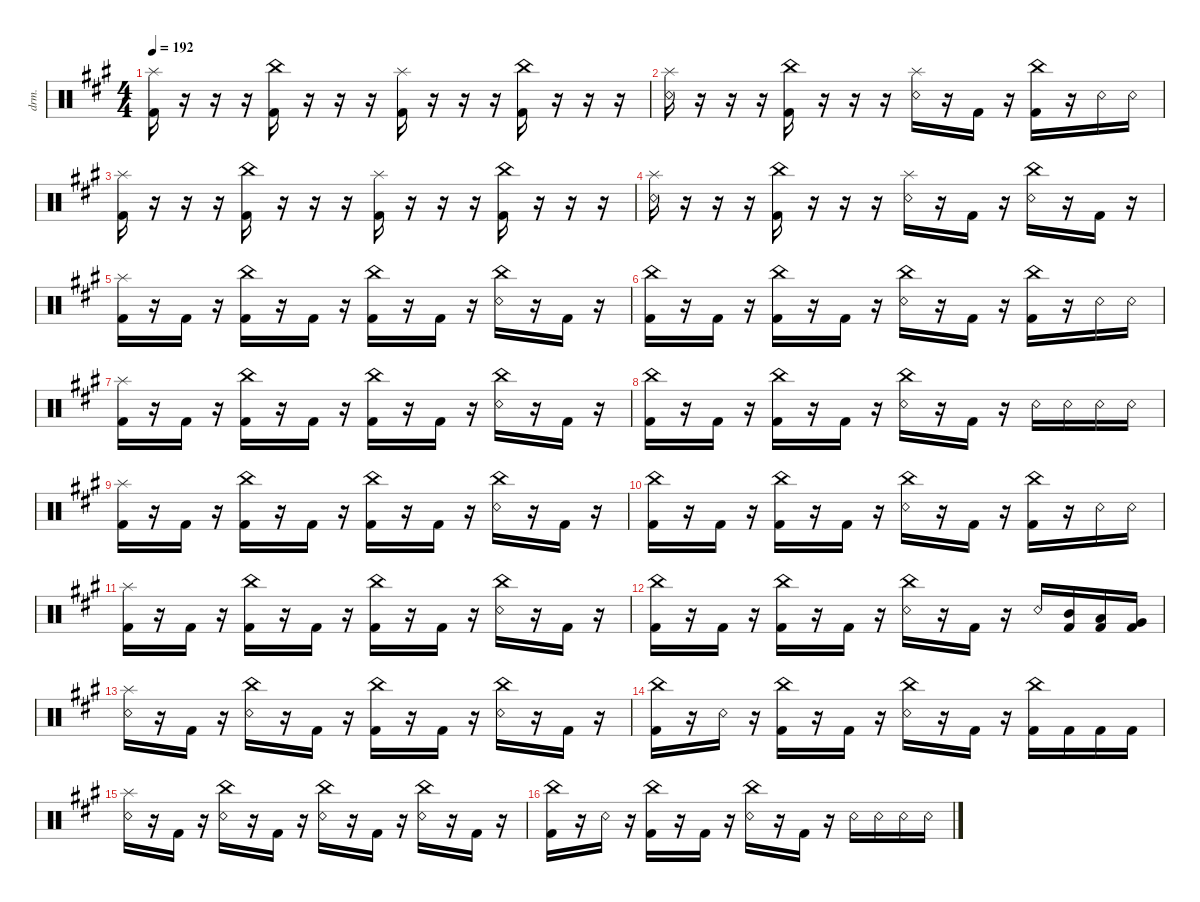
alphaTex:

\defaultSystemsLayout 4
\hideDynamics
\bracketExtendMode nobrackets
\otherSystemsTrackNameOrientation horizontal
\track ("Drumkit" "drm.") {instrument percussion}
\staff {score}
\articulation defaults
\ts (4 4)
\tempo 192
\clef neutral
\ks a
("Kick (hit) 2"{acc forcenatural} "Splash (hit)"{acc forcenatural}).16{dy ff beam Down} r.16{beam Down} r.16{beam Down} r.16{beam Down} ("Kick (hit) 2"{acc forcenatural} "China (hit)"{acc forcenatural}).16{beam Down} r.16{beam Down} r.16{beam Down} r.16{beam Down} ("Kick (hit) 2"{acc forcenatural} "Splash (hit)"{acc forcenatural}).16{beam Down} r.16{beam Down} r.16{beam Down} r.16{beam Down} ("Kick (hit) 2"{acc forcenatural} "China (hit)"{acc forcenatural}).16{beam Down} r.16{beam Down} r.16{beam Down} r.16{beam Down} |
("Snare (rim shot)"{acc forcenatural} "Splash (hit)"{acc forcenatural}).16{beam Down} r.16{beam Down} r.16{beam Down} r.16{beam Down} ("Kick (hit) 2"{acc forcenatural} "China (hit)"{acc forcenatural}).16{beam Down} r.16{beam Down} r.16{beam Down} r.16{beam Down} ("Splash (hit)"{acc forcenatural} "Snare (rim shot)"{acc forcenatural}).16{beam Down} r.16{beam Down} "Kick (hit) 2"{acc forcenatural}.16{beam Down} r.16{beam Down} ("Kick (hit) 2"{acc forcenatural} "China (hit)"{acc forcenatural}).16{beam Down} r.16{beam Down} "Snare (rim shot)"{acc forcenatural}.16{beam Down} "Snare (rim shot)"{acc forcenatural}.16{beam Down} |
("Kick (hit) 2"{acc forcenatural} "Splash (hit)"{acc forcenatural}).16{beam Down} r.16{beam Down} r.16{beam Down} r.16{beam Down} ("Kick (hit) 2"{acc forcenatural} "China (hit)"{acc forcenatural}).16{beam Down} r.16{beam Down} r.16{beam Down} r.16{beam Down} ("Kick (hit) 2"{acc forcenatural} "Splash (hit)"{acc forcenatural}).16{beam Down} r.16{beam Down} r.16{beam Down} r.16{beam Down} ("Kick (hit) 2"{acc forcenatural} "China (hit)"{acc forcenatural}).16{beam Down} r.16{beam Down} r.16{beam Down} r.16{beam Down} |
("Snare (rim shot)"{acc forcenatural} "Splash (hit)"{acc forcenatural}).16{beam Down} r.16{beam Down} r.16{beam Down} r.16{beam Down} ("Kick (hit) 2"{acc forcenatural} "China (hit)"{acc forcenatural}).16{beam Down} r.16{beam Down} r.16{beam Down} r.16{beam Down} ("Splash (hit)"{acc forcenatural} "Snare (rim shot)"{acc forcenatural}).16{beam Down} r.16{beam Down} "Kick (hit) 2"{acc forcenatural}.16{beam Down} r.16{beam Down} ("China (hit)"{acc forcenatural} "Snare (rim shot)"{acc forcenatural}).16{beam Down} r.16{beam Down} "Kick (hit) 2"{acc forcenatural}.16{beam Down} r.16{beam Down} |
("Kick (hit) 2"{acc forcenatural} "Splash (hit)"{acc forcenatural}).16{beam Down} r.16{beam Down} "Kick (hit) 2"{acc forcenatural}.16{beam Down} r.16{beam Down} ("Kick (hit) 2"{acc forcenatural} "China (hit)"{acc forcenatural}).16{beam Down} r.16{beam Down} "Kick (hit) 2"{acc forcenatural}.16{beam Down} r.16{beam Down} ("Kick (hit) 2"{acc forcenatural} "China (hit)"{acc forcenatural}).16{beam Down} r.16{beam Down} "Kick (hit) 2"{acc forcenatural}.16{beam Down} r.16{beam Down} ("Snare (rim shot)"{acc forcenatural} "China (hit)"{acc forcenatural}).16{beam Down} r.16{beam Down} "Kick (hit) 2"{acc forcenatural}.16{beam Down} r.16{beam Down} |
("Kick (hit) 2"{acc forcenatural} "China (hit)"{acc forcenatural}).16{beam Down} r.16{beam Down} "Kick (hit) 2"{acc forcenatural}.16{beam Down} r.16{beam Down} ("Kick (hit) 2"{acc forcenatural} "China (hit)"{acc forcenatural}).16{beam Down} r.16{beam Down} "Kick (hit) 2"{acc forcenatural}.16{beam Down} r.16{beam Down} ("Snare (rim shot)"{acc forcenatural} "China (hit)"{acc forcenatural}).16{beam Down} r.16{beam Down} "Kick (hit) 2"{acc forcenatural}.16{beam Down} r.16{beam Down} ("Kick (hit) 2"{acc forcenatural} "China (hit)"{acc forcenatural}).16{beam Down} r.16{beam Down} "Snare (rim shot)"{acc forcenatural}.16{beam Down} "Snare (rim shot)"{acc forcenatural}.16{beam Down} |
("Kick (hit) 2"{acc forcenatural} "Splash (hit)"{acc forcenatural}).16{beam Down} r.16{beam Down} "Kick (hit) 2"{acc forcenatural}.16{beam Down} r.16{beam Down} ("Kick (hit) 2"{acc forcenatural} "China (hit)"{acc forcenatural}).16{beam Down} r.16{beam Down} "Kick (hit) 2"{acc forcenatural}.16{beam Down} r.16{beam Down} ("Kick (hit) 2"{acc forcenatural} "China (hit)"{acc forcenatural}).16{beam Down} r.16{beam Down} "Kick (hit) 2"{acc forcenatural}.16{beam Down} r.16{beam Down} ("Snare (rim shot)"{acc forcenatural} "China (hit)"{acc forcenatural}).16{beam Down} r.16{beam Down} "Kick (hit) 2"{acc forcenatural}.16{beam Down} r.16{beam Down} |
("Kick (hit) 2"{acc forcenatural} "China (hit)"{acc forcenatural}).16{beam Down} r.16{beam Down} "Kick (hit) 2"{acc forcenatural}.16{beam Down} r.16{beam Down} ("Kick (hit) 2"{acc forcenatural} "China (hit)"{acc forcenatural}).16{beam Down} r.16{beam Down} "Kick (hit) 2"{acc forcenatural}.16{beam Down} r.16{beam Down} ("Snare (rim shot)"{acc forcenatural} "China (hit)"{acc forcenatural}).16{beam Down} r.16{beam Down} "Kick (hit) 2"{acc forcenatural}.16{beam Down} r.16{beam Down} "Snare (rim shot)"{acc forcenatural}.16{beam Down} "Snare (rim shot)"{acc forcenatural}.16{beam Down} "Snare (rim shot)"{acc forcenatural}.16{beam Down} "Snare (rim shot)"{acc forcenatural}.16{beam Down} |
("Kick (hit) 2"{acc forcenatural} "Splash (hit)"{acc forcenatural}).16{beam Down} r.16{beam Down} "Kick (hit) 2"{acc forcenatural}.16{beam Down} r.16{beam Down} ("Kick (hit) 2"{acc forcenatural} "China (hit)"{acc forcenatural}).16{beam Down} r.16{beam Down} "Kick (hit) 2"{acc forcenatural}.16{beam Down} r.16{beam Down} ("Kick (hit) 2"{acc forcenatural} "China (hit)"{acc forcenatural}).16{beam Down} r.16{beam Down} "Kick (hit) 2"{acc forcenatural}.16{beam Down} r.16{beam Down} ("Snare (rim shot)"{acc forcenatural} "China (hit)"{acc forcenatural}).16{beam Down} r.16{beam Down} "Kick (hit) 2"{acc forcenatural}.16{beam Down} r.16{beam Down} |
("Kick (hit) 2"{acc forcenatural} "China (hit)"{acc forcenatural}).16{beam Down} r.16{beam Down} "Kick (hit) 2"{acc forcenatural}.16{beam Down} r.16{beam Down} ("Kick (hit) 2"{acc forcenatural} "China (hit)"{acc forcenatural}).16{beam Down} r.16{beam Down} "Kick (hit) 2"{acc forcenatural}.16{beam Down} r.16{beam Down} ("Snare (rim shot)"{acc forcenatural} "China (hit)"{acc forcenatural}).16{beam Down} r.16{beam Down} "Kick (hit) 2"{acc forcenatural}.16{beam Down} r.16{beam Down} ("Kick (hit) 2"{acc forcenatural} "China (hit)"{acc forcenatural}).16{beam Down} r.16{beam Down} "Snare (rim shot)"{acc forcenatural}.16{beam Down} "Snare (rim shot)"{acc forcenatural}.16{beam Down} |
("Kick (hit) 2"{acc forcenatural} "Splash (hit)"{acc forcenatural}).16{beam Down} r.16{beam Down} "Kick (hit) 2"{acc forcenatural}.16{beam Down} r.16{beam Down} ("Kick (hit) 2"{acc forcenatural} "China (hit)"{acc forcenatural}).16{beam Down} r.16{beam Down} "Kick (hit) 2"{acc forcenatural}.16{beam Down} r.16{beam Down} ("Kick (hit) 2"{acc forcenatural} "China (hit)"{acc forcenatural}).16{beam Down} r.16{beam Down} "Kick (hit) 2"{acc forcenatural}.16{beam Down} r.16{beam Down} ("Snare (rim shot)"{acc forcenatural} "China (hit)"{acc forcenatural}).16{beam Down} r.16{beam Down} "Kick (hit) 2"{acc forcenatural}.16{beam Down} r.16{beam Down} |
("Kick (hit) 2"{acc forcenatural} "China (hit)"{acc forcenatural}).16{beam Down} r.16{beam Down} "Kick (hit) 2"{acc forcenatural}.16{beam Down} r.16{beam Down} ("Kick (hit) 2"{acc forcenatural} "China (hit)"{acc forcenatural}).16{beam Down} r.16{beam Down} "Kick (hit) 2"{acc forcenatural}.16{beam Down} r.16{beam Down} ("Snare (rim shot)"{acc forcenatural} "China (hit)"{acc forcenatural}).16{beam Down} r.16{beam Down} "Kick (hit) 2"{acc forcenatural}.16{beam Down} r.16{beam Down} "Snare (rim shot)"{acc forcenatural}.16{beam Up} ("Mid Tom (hit)"{acc forcenatural} "Kick (hit) 2"{acc forcenatural}).16{beam Up} ("Low Tom (hit)"{acc forcenatural} "Kick (hit) 2"{acc forcenatural}).16{beam Up} ("Very Low Tom (hit)"{acc forcenatural} "Kick (hit) 2"{acc forcenatural}).16{beam Up} |
("Snare (rim shot)"{acc forcenatural} "Splash (hit)"{acc forcenatural}).16{beam Down} r.16{beam Down} "Kick (hit) 2"{acc forcenatural}.16{beam Down} r.16{beam Down} ("Snare (rim shot)"{acc forcenatural} "China (hit)"{acc forcenatural}).16{beam Down} r.16{beam Down} "Kick (hit) 2"{acc forcenatural}.16{beam Down} r.16{beam Down} ("Kick (hit) 2"{acc forcenatural} "China (hit)"{acc forcenatural}).16{beam Down} r.16{beam Down} "Kick (hit) 2"{acc forcenatural}.16{beam Down} r.16{beam Down} ("Snare (rim shot)"{acc forcenatural} "China (hit)"{acc forcenatural}).16{beam Down} r.16{beam Down} "Kick (hit) 2"{acc forcenatural}.16{beam Down} r.16{beam Down} |
("Kick (hit) 2"{acc forcenatural} "China (hit)"{acc forcenatural}).16{beam Down} r.16{beam Down} "Snare (rim shot)"{acc forcenatural}.16{beam Down} r.16{beam Down} ("Kick (hit) 2"{acc forcenatural} "China (hit)"{acc forcenatural}).16{beam Down} r.16{beam Down} "Kick (hit) 2"{acc forcenatural}.16{beam Down} r.16{beam Down} ("Snare (rim shot)"{acc forcenatural} "China (hit)"{acc forcenatural}).16{beam Down} r.16{beam Down} "Kick (hit) 2"{acc forcenatural}.16{beam Down} r.16{beam Down} ("Kick (hit) 2"{acc forcenatural} "China (hit)"{acc forcenatural}).16{beam Down} "Kick (hit) 2"{acc forcenatural}.16{beam Down} "Kick (hit) 2"{acc forcenatural}.16{beam Down} "Kick (hit) 2"{acc forcenatural}.16{beam Down} |
("Splash (hit)"{acc forcenatural} "Snare (rim shot)"{acc forcenatural}).16{beam Down} r.16{beam Down} "Kick (hit) 2"{acc forcenatural}.16{beam Down} r.16{beam Down} ("Snare (rim shot)"{acc forcenatural} "China (hit)"{acc forcenatural}).16{beam Down} r.16{beam Down} "Kick (hit) 2"{acc forcenatural}.16{beam Down} r.16{beam Down} ("Snare (rim shot)"{acc forcenatural} "China (hit)"{acc forcenatural}).16{beam Down} r.16{beam Down} "Kick (hit) 2"{acc forcenatural}.16{beam Down} r.16{beam Down} ("Snare (rim shot)"{acc forcenatural} "China (hit)"{acc forcenatural}).16{beam Down} r.16{beam Down} "Kick (hit) 2"{acc forcenatural}.16{beam Down} r.16{beam Down} |
("Kick (hit) 2"{acc forcenatural} "China (hit)"{acc forcenatural}).16{beam Down} r.16{beam Down} "Snare (rim shot)"{acc forcenatural}.16{beam Down} r.16{beam Down} ("Kick (hit) 2"{acc forcenatural} "China (hit)"{acc forcenatural}).16{beam Down} r.16{beam Down} "Kick (hit) 2"{acc forcenatural}.16{beam Down} r.16{beam Down} ("Snare (rim shot)"{acc forcenatural} "China (hit)"{acc forcenatural}).16{beam Down} r.16{beam Down} "Kick (hit) 2"{acc forcenatural}.16{beam Down} r.16{beam Down} "Snare (rim shot)"{acc forcenatural}.16{beam Down} "Snare (rim shot)"{acc forcenatural}.16{beam Down} "Snare (rim shot)"{acc forcenatural}.16{beam Down} "Snare (rim shot)"{acc forcenatural}.16{beam Down}
